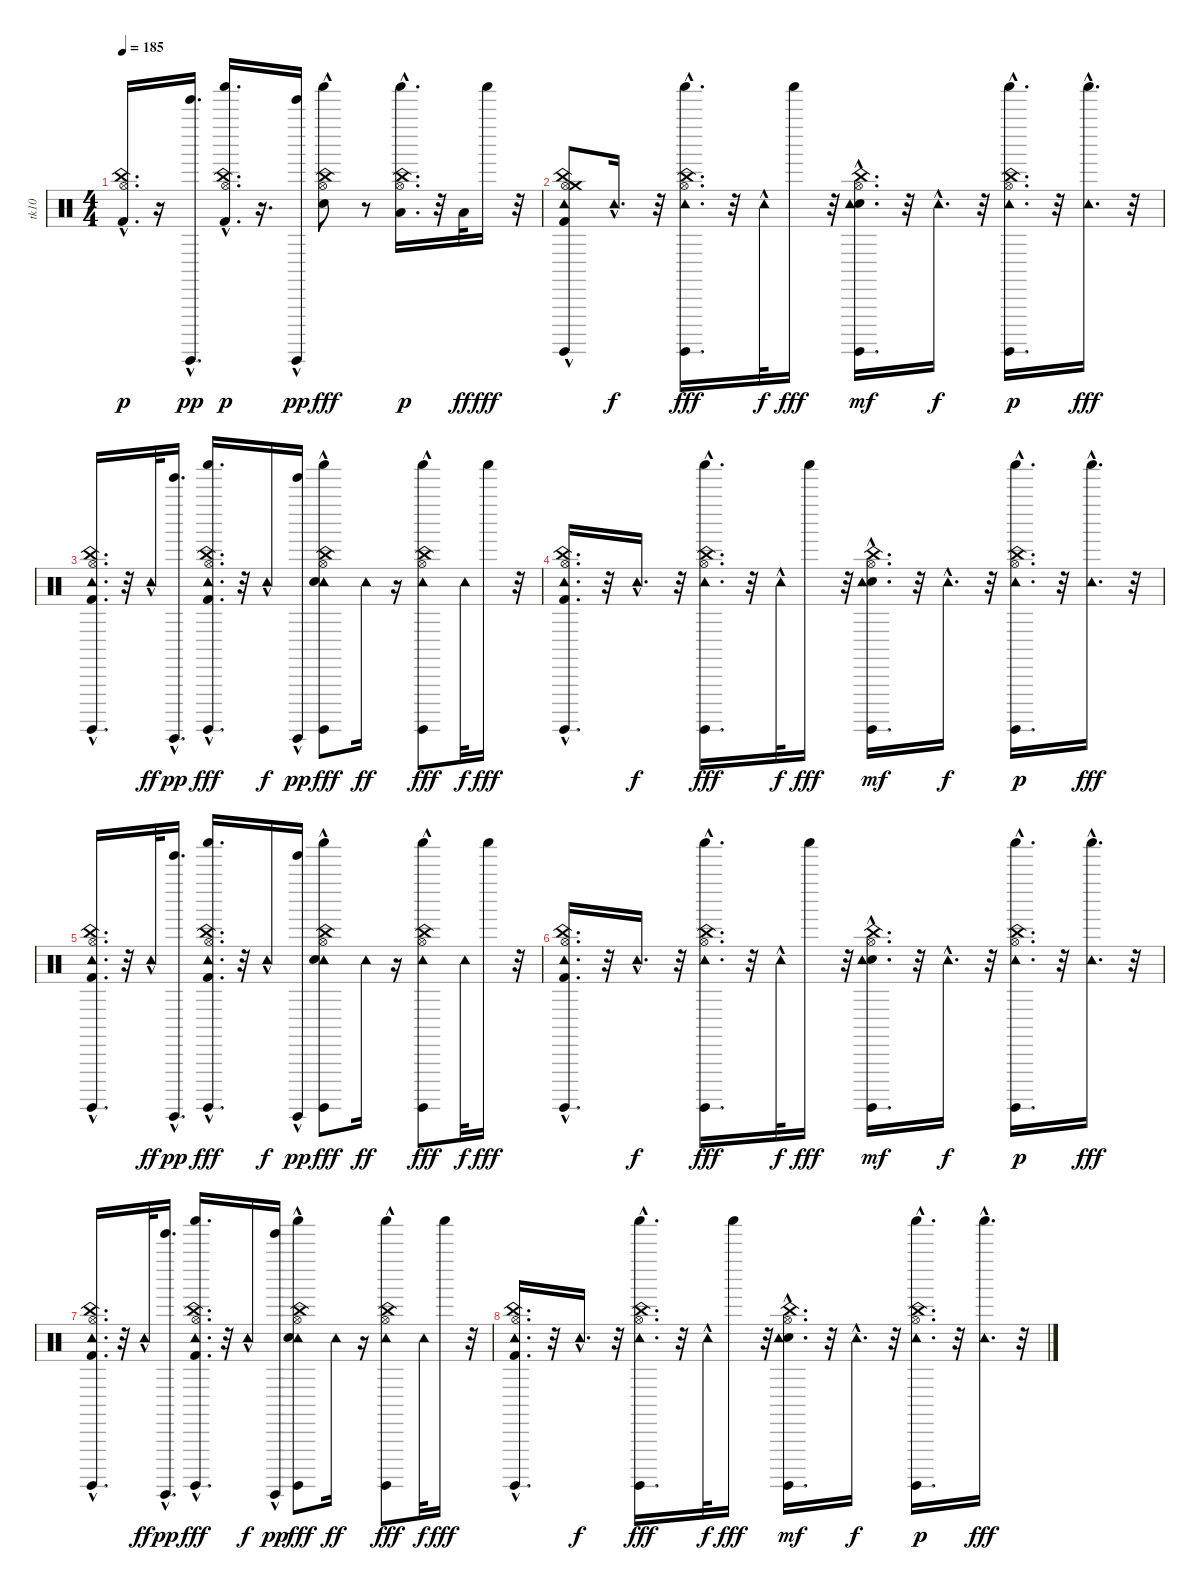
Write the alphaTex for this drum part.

\track ("tk10" "tk10") {instrument percussion}
\staff {score}
\articulation defaults
\ts (4 4)
\tempo 185
\clef neutral
\ks c
("Kick (hit) 2"{hac} "Hi-Hat (open)" "China (hit)").16{d dy p} r.16 ("Guiro (hit)" "Tinkle Bell (hit)"{hac}).16{d dy pp} ("Shaker (hit)" "Kick (hit) 2"{hac} "Hi-Hat (open)" "China (hit)").16{d dy p} r.16{d} ("Guiro (hit)" "Tinkle Bell (hit)"{hac}).16{dy pp} ("Electric Snare (hit)" "Hi-Hat (open)" "China (hit)" "Shaker (hit)"{hac}).8{dy fff} r.8 ("Shaker (hit)" "Low Tom (hit)"{hac} "Hi-Hat (open)" "China (hit)").16{d dy p} r.32 "Low Floor Tom (hit)".32{dy ff} "Shaker (hit)".16{dy fff} r.32 |
("Surdo (hit)" "Kick (hit) 2"{hac} "Hi-Hat (open)" "Crash medium (hit)"{hac} "China (hit)" "Tambourine (hit)"{hac}).8 "Tambourine (hit)"{hac}.16{d dy f} r.32 ("Tambourine (hit)"{hac} "Shaker (hit)" "Hi-Hat (open)" "China (hit)" "Surdo (hit)").16{d dy fff} r.32 "Tambourine (hit)"{hac}.32{dy f} "Shaker (hit)".16{dy fff} r.32 ("Electric Snare (hit)"{hac} "Hi-Hat (open)" "China (hit)" "Tambourine (hit)"{hac} "Surdo (hit)").16{d dy mf} r.32 "Tambourine (hit)"{hac}.16{d dy f} r.32 ("Shaker (hit)" "Surdo (hit)" "Tambourine (hit)"{hac} "Hi-Hat (open)" "China (hit)").16{d dy p} r.32 ("Tambourine (hit)"{hac} "Shaker (hit)").16{d dy fff} r.32 |
("Kick (hit) 2"{hac} "Hi-Hat (open)" "China (hit)" "Surdo (hit)" "Tambourine (hit)"{hac}).16{d} r.32 "Tambourine (hit)"{hac}.32{dy ff} ("Guiro (hit)" "Tinkle Bell (hit)"{hac}).16{d dy pp} ("Tambourine (hit)"{hac} "Shaker (hit)" "Kick (hit) 2"{hac} "Hi-Hat (open)" "China (hit)" "Surdo (hit)").16{d dy fff} r.32 "Tambourine (hit)"{hac}.16{dy f} ("Guiro (hit)" "Tinkle Bell (hit)"{hac}).16{dy pp} ("Tambourine (hit)"{hac} "Electric Snare (hit)" "Hi-Hat (open)" "China (hit)" "Shaker (hit)"{hac} "Surdo (hit)").8{dy fff} "Tambourine (hit)".16{dy ff} r.16 ("Tambourine (hit)" "Shaker (hit)" "Hi-Hat (open)" "China (hit)" "Surdo (hit)"{hac}).8{dy fff} "Tambourine (hit)".32{dy f} "Shaker (hit)".16{dy fff} r.32 |
("Kick (hit) 2"{hac} "Hi-Hat (open)" "Surdo (hit)" "China (hit)" "Tambourine (hit)"{hac}).16{d} r.32 "Tambourine (hit)"{hac}.16{d dy f} r.32 ("Tambourine (hit)"{hac} "Shaker (hit)" "Hi-Hat (open)" "China (hit)" "Surdo (hit)").16{d dy fff} r.32 "Tambourine (hit)"{hac}.32{dy f} "Shaker (hit)".16{dy fff} r.32 ("Electric Snare (hit)"{hac} "Hi-Hat (open)" "China (hit)" "Tambourine (hit)"{hac} "Surdo (hit)").16{d dy mf} r.32 "Tambourine (hit)"{hac}.16{d dy f} r.32 ("Shaker (hit)" "Surdo (hit)" "Tambourine (hit)"{hac} "Hi-Hat (open)" "China (hit)").16{d dy p} r.32 ("Tambourine (hit)"{hac} "Shaker (hit)").16{d dy fff} r.32 |
("Kick (hit) 2"{hac} "Hi-Hat (open)" "China (hit)" "Surdo (hit)" "Tambourine (hit)"{hac}).16{d} r.32 "Tambourine (hit)"{hac}.32{dy ff} ("Guiro (hit)" "Tinkle Bell (hit)"{hac}).16{d dy pp} ("Tambourine (hit)"{hac} "Shaker (hit)" "Kick (hit) 2"{hac} "Hi-Hat (open)" "China (hit)" "Surdo (hit)").16{d dy fff} r.32 "Tambourine (hit)"{hac}.16{dy f} ("Guiro (hit)" "Tinkle Bell (hit)"{hac}).16{dy pp} ("Tambourine (hit)"{hac} "Electric Snare (hit)" "Hi-Hat (open)" "China (hit)" "Shaker (hit)"{hac} "Surdo (hit)").8{dy fff} "Tambourine (hit)".16{dy ff} r.16 ("Tambourine (hit)" "Shaker (hit)" "Hi-Hat (open)" "China (hit)" "Surdo (hit)"{hac}).8{dy fff} "Tambourine (hit)".32{dy f} "Shaker (hit)".16{dy fff} r.32 |
("Kick (hit) 2"{hac} "Hi-Hat (open)" "Surdo (hit)" "China (hit)" "Tambourine (hit)"{hac}).16{d} r.32 "Tambourine (hit)"{hac}.16{d dy f} r.32 ("Tambourine (hit)"{hac} "Shaker (hit)" "Hi-Hat (open)" "China (hit)" "Surdo (hit)").16{d dy fff} r.32 "Tambourine (hit)"{hac}.32{dy f} "Shaker (hit)".16{dy fff} r.32 ("Electric Snare (hit)"{hac} "Hi-Hat (open)" "China (hit)" "Tambourine (hit)"{hac} "Surdo (hit)").16{d dy mf} r.32 "Tambourine (hit)"{hac}.16{d dy f} r.32 ("Shaker (hit)" "Surdo (hit)" "Tambourine (hit)"{hac} "Hi-Hat (open)" "China (hit)").16{d dy p} r.32 ("Tambourine (hit)"{hac} "Shaker (hit)").16{d dy fff} r.32 |
("Kick (hit) 2"{hac} "Hi-Hat (open)" "China (hit)" "Surdo (hit)" "Tambourine (hit)"{hac}).16{d} r.32 "Tambourine (hit)"{hac}.32{dy ff} ("Guiro (hit)" "Tinkle Bell (hit)"{hac}).16{d dy pp} ("Tambourine (hit)"{hac} "Shaker (hit)" "Kick (hit) 2"{hac} "Hi-Hat (open)" "China (hit)" "Surdo (hit)").16{d dy fff} r.32 "Tambourine (hit)"{hac}.16{dy f} ("Guiro (hit)" "Tinkle Bell (hit)"{hac}).16{dy pp} ("Tambourine (hit)"{hac} "Electric Snare (hit)" "Hi-Hat (open)" "China (hit)" "Shaker (hit)"{hac} "Surdo (hit)").8{dy fff} "Tambourine (hit)".16{dy ff} r.16 ("Tambourine (hit)" "Shaker (hit)" "Hi-Hat (open)" "China (hit)" "Surdo (hit)"{hac}).8{dy fff} "Tambourine (hit)".32{dy f} "Shaker (hit)".16{dy fff} r.32 |
("Kick (hit) 2"{hac} "Hi-Hat (open)" "Surdo (hit)" "China (hit)" "Tambourine (hit)"{hac}).16{d} r.32 "Tambourine (hit)"{hac}.16{d dy f} r.32 ("Tambourine (hit)"{hac} "Shaker (hit)" "Hi-Hat (open)" "China (hit)" "Surdo (hit)").16{d dy fff} r.32 "Tambourine (hit)"{hac}.32{dy f} "Shaker (hit)".16{dy fff} r.32 ("Electric Snare (hit)"{hac} "Hi-Hat (open)" "China (hit)" "Tambourine (hit)"{hac} "Surdo (hit)").16{d dy mf} r.32 "Tambourine (hit)"{hac}.16{d dy f} r.32 ("Shaker (hit)" "Surdo (hit)" "Tambourine (hit)"{hac} "Hi-Hat (open)" "China (hit)").16{d dy p} r.32 ("Tambourine (hit)"{hac} "Shaker (hit)").16{d dy fff} r.32
